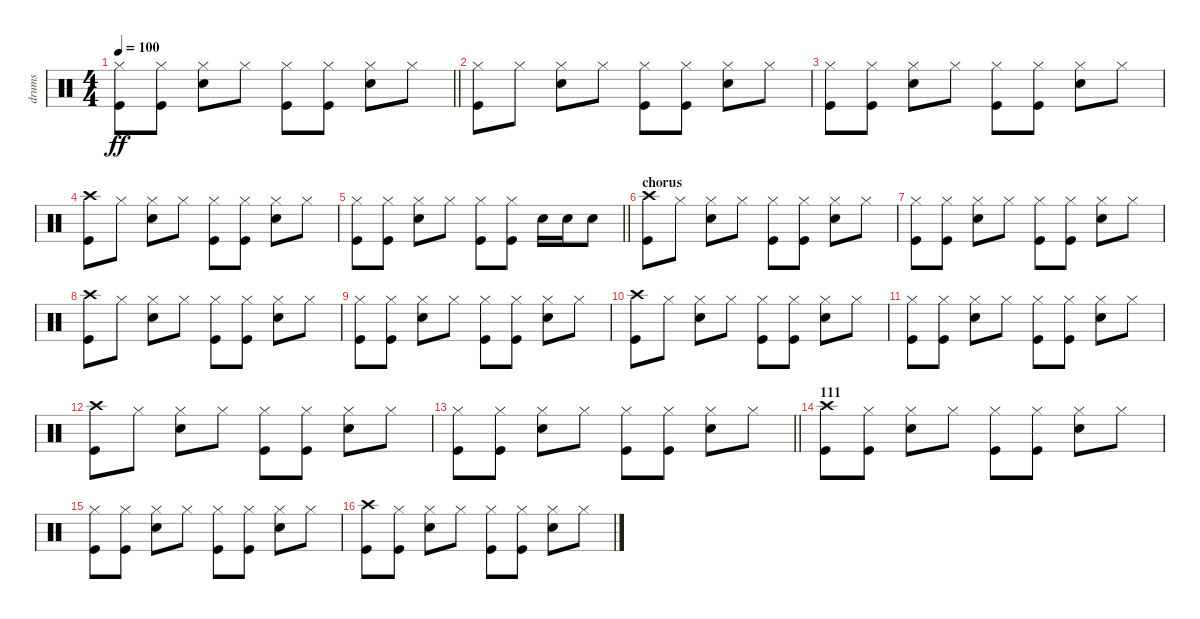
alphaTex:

\track ("drums" "drums") {instrument percussion}
\staff {score}
\articulation defaults
\ts (4 4)
\tempo 100
\clef neutral
\barLineRight lightlight
\ks c
("Hi-Hat (closed)" "Kick (hit)").8{dy ff} ("Hi-Hat (closed)" "Kick (hit)").8 ("Hi-Hat (closed)" "Electric Snare (hit)").8 "Hi-Hat (closed)".8 ("Hi-Hat (closed)" "Kick (hit)").8 ("Hi-Hat (closed)" "Kick (hit)").8 ("Hi-Hat (closed)" "Electric Snare (hit)").8 "Hi-Hat (closed)".8 |
("Hi-Hat (closed)" "Kick (hit)").8 "Hi-Hat (closed)".8 ("Hi-Hat (closed)" "Electric Snare (hit)").8 "Hi-Hat (closed)".8 ("Hi-Hat (closed)" "Kick (hit)").8 ("Hi-Hat (closed)" "Kick (hit)").8 ("Hi-Hat (closed)" "Electric Snare (hit)").8 "Hi-Hat (closed)".8 |
("Hi-Hat (closed)" "Kick (hit)").8 ("Hi-Hat (closed)" "Kick (hit)").8 ("Hi-Hat (closed)" "Electric Snare (hit)").8 "Hi-Hat (closed)".8 ("Hi-Hat (closed)" "Kick (hit)").8 ("Hi-Hat (closed)" "Kick (hit)").8 ("Hi-Hat (closed)" "Electric Snare (hit)").8 "Hi-Hat (closed)".8 |
("Crash high (hit)" "Kick (hit)").8 "Hi-Hat (closed)".8 ("Hi-Hat (closed)" "Electric Snare (hit)").8 "Hi-Hat (closed)".8 ("Hi-Hat (closed)" "Kick (hit)").8 ("Hi-Hat (closed)" "Kick (hit)").8 ("Hi-Hat (closed)" "Electric Snare (hit)").8 "Hi-Hat (closed)".8 |
\barLineRight lightlight
("Hi-Hat (closed)" "Kick (hit)").8 ("Hi-Hat (closed)" "Kick (hit)").8 ("Hi-Hat (closed)" "Electric Snare (hit)").8 "Hi-Hat (closed)".8 ("Hi-Hat (closed)" "Kick (hit)").8 ("Hi-Hat (closed)" "Kick (hit)").8 "Electric Snare (hit)".16 "Electric Snare (hit)".16 "Electric Snare (hit)".8 |
\section ("" "chorus")
("Crash high (hit)" "Kick (hit)").8 "Hi-Hat (closed)".8 ("Hi-Hat (closed)" "Electric Snare (hit)").8 "Hi-Hat (closed)".8 ("Hi-Hat (closed)" "Kick (hit)").8 ("Hi-Hat (closed)" "Kick (hit)").8 ("Hi-Hat (closed)" "Electric Snare (hit)").8 "Hi-Hat (closed)".8 |
("Hi-Hat (closed)" "Kick (hit)").8 ("Hi-Hat (closed)" "Kick (hit)").8 ("Hi-Hat (closed)" "Electric Snare (hit)").8 "Hi-Hat (closed)".8 ("Hi-Hat (closed)" "Kick (hit)").8 ("Hi-Hat (closed)" "Kick (hit)").8 ("Hi-Hat (closed)" "Electric Snare (hit)").8 "Hi-Hat (closed)".8 |
("Crash high (hit)" "Kick (hit)").8 "Hi-Hat (closed)".8 ("Hi-Hat (closed)" "Electric Snare (hit)").8 "Hi-Hat (closed)".8 ("Hi-Hat (closed)" "Kick (hit)").8 ("Hi-Hat (closed)" "Kick (hit)").8 ("Hi-Hat (closed)" "Electric Snare (hit)").8 "Hi-Hat (closed)".8 |
("Hi-Hat (closed)" "Kick (hit)").8 ("Hi-Hat (closed)" "Kick (hit)").8 ("Hi-Hat (closed)" "Electric Snare (hit)").8 "Hi-Hat (closed)".8 ("Hi-Hat (closed)" "Kick (hit)").8 ("Hi-Hat (closed)" "Kick (hit)").8 ("Hi-Hat (closed)" "Electric Snare (hit)").8 "Hi-Hat (closed)".8 |
("Crash high (hit)" "Kick (hit)").8 "Hi-Hat (closed)".8 ("Hi-Hat (closed)" "Electric Snare (hit)").8 "Hi-Hat (closed)".8 ("Hi-Hat (closed)" "Kick (hit)").8 ("Hi-Hat (closed)" "Kick (hit)").8 ("Hi-Hat (closed)" "Electric Snare (hit)").8 "Hi-Hat (closed)".8 |
("Hi-Hat (closed)" "Kick (hit)").8 ("Hi-Hat (closed)" "Kick (hit)").8 ("Hi-Hat (closed)" "Electric Snare (hit)").8 "Hi-Hat (closed)".8 ("Hi-Hat (closed)" "Kick (hit)").8 ("Hi-Hat (closed)" "Kick (hit)").8 ("Hi-Hat (closed)" "Electric Snare (hit)").8 "Hi-Hat (closed)".8 |
("Crash high (hit)" "Kick (hit)").8 "Hi-Hat (closed)".8 ("Hi-Hat (closed)" "Electric Snare (hit)").8 "Hi-Hat (closed)".8 ("Hi-Hat (closed)" "Kick (hit)").8 ("Hi-Hat (closed)" "Kick (hit)").8 ("Hi-Hat (closed)" "Electric Snare (hit)").8 "Hi-Hat (closed)".8 |
\barLineRight lightlight
("Hi-Hat (closed)" "Kick (hit)").8 ("Hi-Hat (closed)" "Kick (hit)").8 ("Hi-Hat (closed)" "Electric Snare (hit)").8 "Hi-Hat (closed)".8 ("Hi-Hat (closed)" "Kick (hit)").8 ("Hi-Hat (closed)" "Kick (hit)").8 ("Hi-Hat (closed)" "Electric Snare (hit)").8 "Hi-Hat (closed)".8 |
\section ("" "111")
("Crash high (hit)" "Kick (hit)").8 ("Hi-Hat (closed)" "Kick (hit)").8 ("Hi-Hat (closed)" "Electric Snare (hit)").8 "Hi-Hat (closed)".8 ("Hi-Hat (closed)" "Kick (hit)").8 ("Hi-Hat (closed)" "Kick (hit)").8 ("Hi-Hat (closed)" "Electric Snare (hit)").8 "Hi-Hat (closed)".8 |
("Hi-Hat (closed)" "Kick (hit)").8 ("Hi-Hat (closed)" "Kick (hit)").8 ("Hi-Hat (closed)" "Electric Snare (hit)").8 "Hi-Hat (closed)".8 ("Hi-Hat (closed)" "Kick (hit)").8 ("Hi-Hat (closed)" "Kick (hit)").8 ("Hi-Hat (closed)" "Electric Snare (hit)").8 "Hi-Hat (closed)".8 |
("Crash high (hit)" "Kick (hit)").8 ("Hi-Hat (closed)" "Kick (hit)").8 ("Hi-Hat (closed)" "Electric Snare (hit)").8 "Hi-Hat (closed)".8 ("Hi-Hat (closed)" "Kick (hit)").8 ("Hi-Hat (closed)" "Kick (hit)").8 ("Hi-Hat (closed)" "Electric Snare (hit)").8 "Hi-Hat (closed)".8
